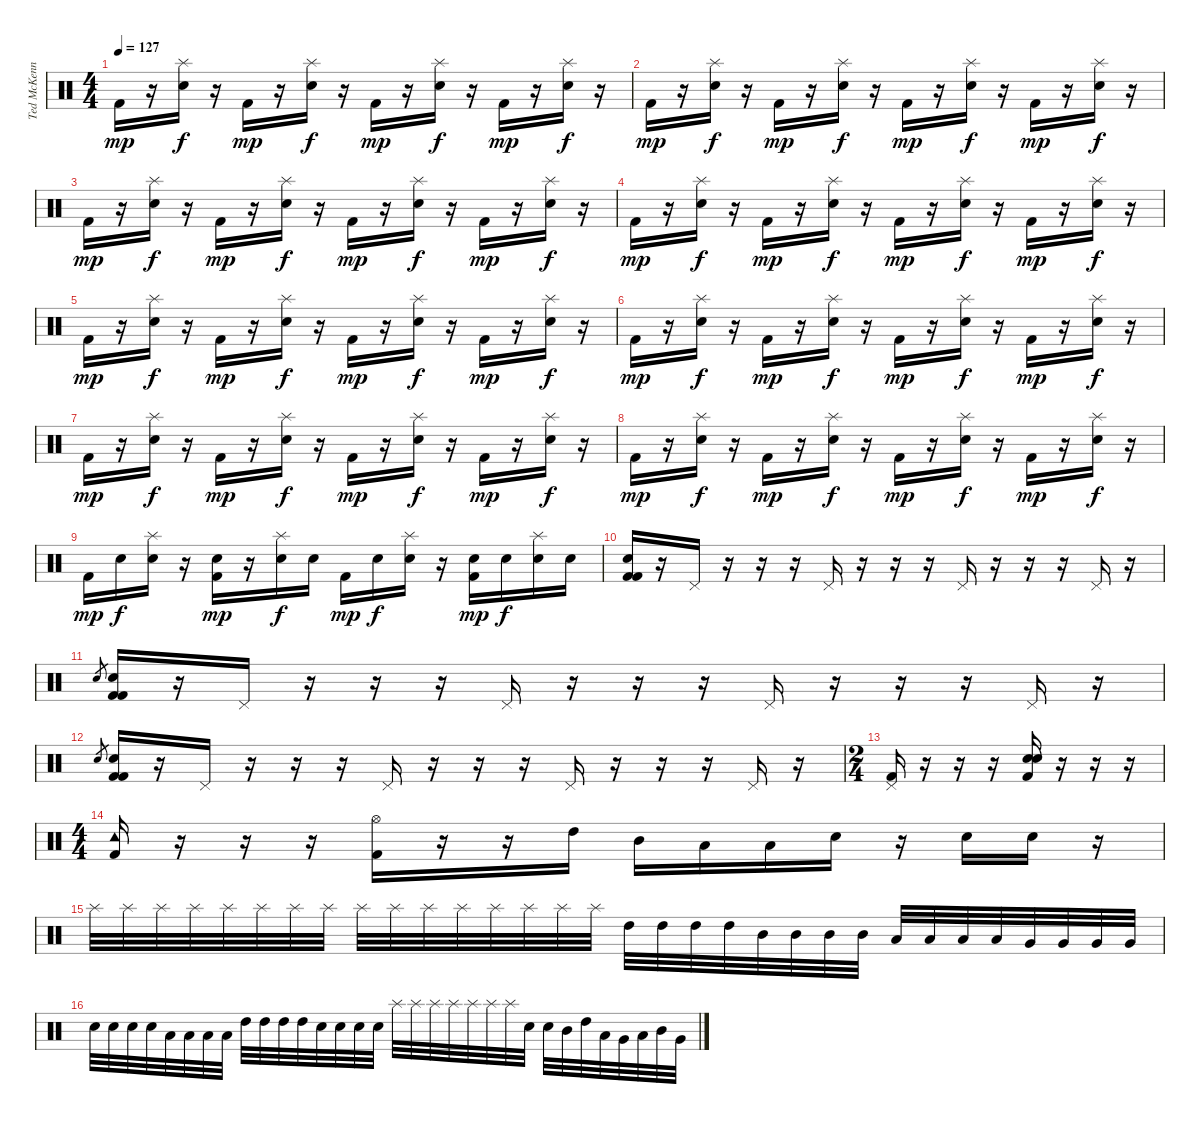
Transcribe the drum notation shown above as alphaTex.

\track ("Ted McKenna" "Ted McKenn") {instrument percussion}
\staff {score}
\articulation defaults
\ts (4 4)
\tempo 127
\clef neutral
\ks c "Kick (hit) 2".16{dy mp}
r.16 ("Splash (hit)" "Snare (hit) 2").16{dy f} r.16 "Kick (hit) 2".16{dy mp} r.16 ("Splash (hit)" "Snare (hit) 2").16{dy f} r.16 "Kick (hit) 2".16{dy mp} r.16 ("Splash (hit)" "Snare (hit) 2").16{dy f} r.16 "Kick (hit) 2".16{dy mp} r.16 ("Splash (hit)" "Snare (hit) 2").16{dy f} r.16 |
"Kick (hit) 2".16{dy mp} r.16 ("Splash (hit)" "Snare (hit) 2").16{dy f} r.16 "Kick (hit) 2".16{dy mp} r.16 ("Splash (hit)" "Snare (hit) 2").16{dy f} r.16 "Kick (hit) 2".16{dy mp} r.16 ("Splash (hit)" "Snare (hit) 2").16{dy f} r.16 "Kick (hit) 2".16{dy mp} r.16 ("Splash (hit)" "Snare (hit) 2").16{dy f} r.16 |
"Kick (hit) 2".16{dy mp} r.16 ("Splash (hit)" "Snare (hit) 2").16{dy f} r.16 "Kick (hit) 2".16{dy mp} r.16 ("Splash (hit)" "Snare (hit) 2").16{dy f} r.16 "Kick (hit) 2".16{dy mp} r.16 ("Splash (hit)" "Snare (hit) 2").16{dy f} r.16 "Kick (hit) 2".16{dy mp} r.16 ("Splash (hit)" "Snare (hit) 2").16{dy f} r.16 |
"Kick (hit) 2".16{dy mp} r.16 ("Splash (hit)" "Snare (hit) 2").16{dy f} r.16 "Kick (hit) 2".16{dy mp} r.16 ("Splash (hit)" "Snare (hit) 2").16{dy f} r.16 "Kick (hit) 2".16{dy mp} r.16 ("Splash (hit)" "Snare (hit) 2").16{dy f} r.16 "Kick (hit) 2".16{dy mp} r.16 ("Splash (hit)" "Snare (hit) 2").16{dy f} r.16 |
"Kick (hit) 2".16{dy mp} r.16 ("Splash (hit)" "Snare (hit) 2").16{dy f} r.16 "Kick (hit) 2".16{dy mp} r.16 ("Splash (hit)" "Snare (hit) 2").16{dy f} r.16 "Kick (hit) 2".16{dy mp} r.16 ("Splash (hit)" "Snare (hit) 2").16{dy f} r.16 "Kick (hit) 2".16{dy mp} r.16 ("Splash (hit)" "Snare (hit) 2").16{dy f} r.16 |
"Kick (hit) 2".16{dy mp} r.16 ("Splash (hit)" "Snare (hit) 2").16{dy f} r.16 "Kick (hit) 2".16{dy mp} r.16 ("Splash (hit)" "Snare (hit) 2").16{dy f} r.16 "Kick (hit) 2".16{dy mp} r.16 ("Splash (hit)" "Snare (hit) 2").16{dy f} r.16 "Kick (hit) 2".16{dy mp} r.16 ("Splash (hit)" "Snare (hit) 2").16{dy f} r.16 |
"Kick (hit) 2".16{dy mp} r.16 ("Splash (hit)" "Snare (hit) 2").16{dy f} r.16 "Kick (hit) 2".16{dy mp} r.16 ("Splash (hit)" "Snare (hit) 2").16{dy f} r.16 "Kick (hit) 2".16{dy mp} r.16 ("Splash (hit)" "Snare (hit) 2").16{dy f} r.16 "Kick (hit) 2".16{dy mp} r.16 ("Splash (hit)" "Snare (hit) 2").16{dy f} r.16 |
"Kick (hit) 2".16{dy mp} r.16 ("Splash (hit)" "Snare (hit) 2").16{dy f} r.16 "Kick (hit) 2".16{dy mp} r.16 ("Splash (hit)" "Snare (hit) 2").16{dy f} r.16 "Kick (hit) 2".16{dy mp} r.16 ("Splash (hit)" "Snare (hit) 2").16{dy f} r.16 "Kick (hit) 2".16{dy mp} r.16 ("Splash (hit)" "Snare (hit) 2").16{dy f} r.16 |
"Kick (hit) 2".16{dy mp} "Electric Snare (hit)".16{dy f} ("Splash (hit)" "Electric Snare (hit)").16 r.16 ("Electric Snare (hit)" "Kick (hit) 2").16{dy mp} r.16 ("Splash (hit)" "Electric Snare (hit)").16{dy f} "Electric Snare (hit)".16 "Kick (hit) 2".16{dy mp} "Electric Snare (hit)".16{dy f} ("Splash (hit)" "Electric Snare (hit)").16 r.16 ("Electric Snare (hit)" "Kick (hit) 2").16{dy mp} "Electric Snare (hit)".16{dy f} ("Splash (hit)" "Electric Snare (hit)").16 "Electric Snare (hit)".16 |
("Electric Snare (hit)" "Kick (hit) 2" "Kick (hit) 2").16 r.16 "Pedal Hi-Hat (hit)".16 r.16 r.16 r.16 "Pedal Hi-Hat (hit)".16 r.16 r.16 r.16 "Pedal Hi-Hat (hit)".16 r.16 r.16 r.16 "Pedal Hi-Hat (hit)".16 r.16 |
"Electric Snare (hit)".8{gr} ("Electric Snare (hit)" "Kick (hit) 2" "Kick (hit) 2").16 r.16 "Pedal Hi-Hat (hit)".16 r.16 r.16 r.16 "Pedal Hi-Hat (hit)".16 r.16 r.16 r.16 "Pedal Hi-Hat (hit)".16 r.16 r.16 r.16 "Pedal Hi-Hat (hit)".16 r.16 |
"Electric Snare (hit)".8{gr} ("Electric Snare (hit)" "Kick (hit) 2" "Kick (hit) 2").16 r.16 "Pedal Hi-Hat (hit)".16 r.16 r.16 r.16 "Pedal Hi-Hat (hit)".16 r.16 r.16 r.16 "Pedal Hi-Hat (hit)".16 r.16 r.16 r.16 "Pedal Hi-Hat (hit)".16 r.16 |
\ts (2 4)
("Pedal Hi-Hat (hit)" "Kick (hit) 2").16 r.16 r.16 r.16 ("Snare (hit) 2" "Electric Snare (hit)" "Kick (hit) 2").16 r.16 r.16 r.16 |
\ts (4 4)
("Tambourine (hit)" "Kick (hit) 2").16 r.16 r.16 r.16 ("Hi-Hat (open)" "Kick (hit) 2").16 r.16 r.16 "High Tom (hit)".16 "Mid Tom (hit)".16 "Low Tom (hit)".16 "Low Floor Tom (hit)".16 "Snare (hit) 2".16 r.16 "Snare (hit) 2".16 "Snare (hit) 2".16 r.16 |
"Splash (hit)".32 "Splash (hit)".32 "Splash (hit)".32 "Splash (hit)".32 "Splash (hit)".32 "Splash (hit)".32 "Splash (hit)".32 "Splash (hit)".32 "Splash (hit)".32 "Splash (hit)".32 "Splash (hit)".32 "Splash (hit)".32 "Splash (hit)".32 "Splash (hit)".32 "Splash (hit)".32 "Splash (hit)".32 "High Tom (hit)".32 "High Tom (hit)".32 "High Tom (hit)".32 "High Tom (hit)".32 "Mid Tom (hit)".32 "Mid Tom (hit)".32 "Mid Tom (hit)".32 "Mid Tom (hit)".32 "Low Tom (hit)".32 "Low Tom (hit)".32 "Low Tom (hit)".32 "Low Tom (hit)".32 "Very Low Tom (hit)".32 "Very Low Tom (hit)".32 "Very Low Tom (hit)".32 "Very Low Tom (hit)".32 |
"Snare (hit) 2".32 "Snare (hit) 2".32 "Snare (hit) 2".32 "Snare (hit) 2".32 "Low Tom (hit)".32 "Low Tom (hit)".32 "Low Tom (hit)".32 "Low Tom (hit)".32 "High Tom (hit)".32 "High Tom (hit)".32 "High Tom (hit)".32 "High Tom (hit)".32 "Electric Snare (hit)".32 "Electric Snare (hit)".32 "Electric Snare (hit)".32 "Electric Snare (hit)".32 "Splash (hit)".32 "Splash (hit)".32 "Splash (hit)".32 "Splash (hit)".32 "Splash (hit)".32 "Splash (hit)".32 "Splash (hit)".32 "Electric Snare (hit)".32 "Snare (hit) 2".32 "Mid Tom (hit)".32 "High Tom (hit)".32 "Low Tom (hit)".32 "Very Low Tom (hit)".32 "Low Tom (hit)".32 "Mid Tom (hit)".32 "Very Low Tom (hit)".32
